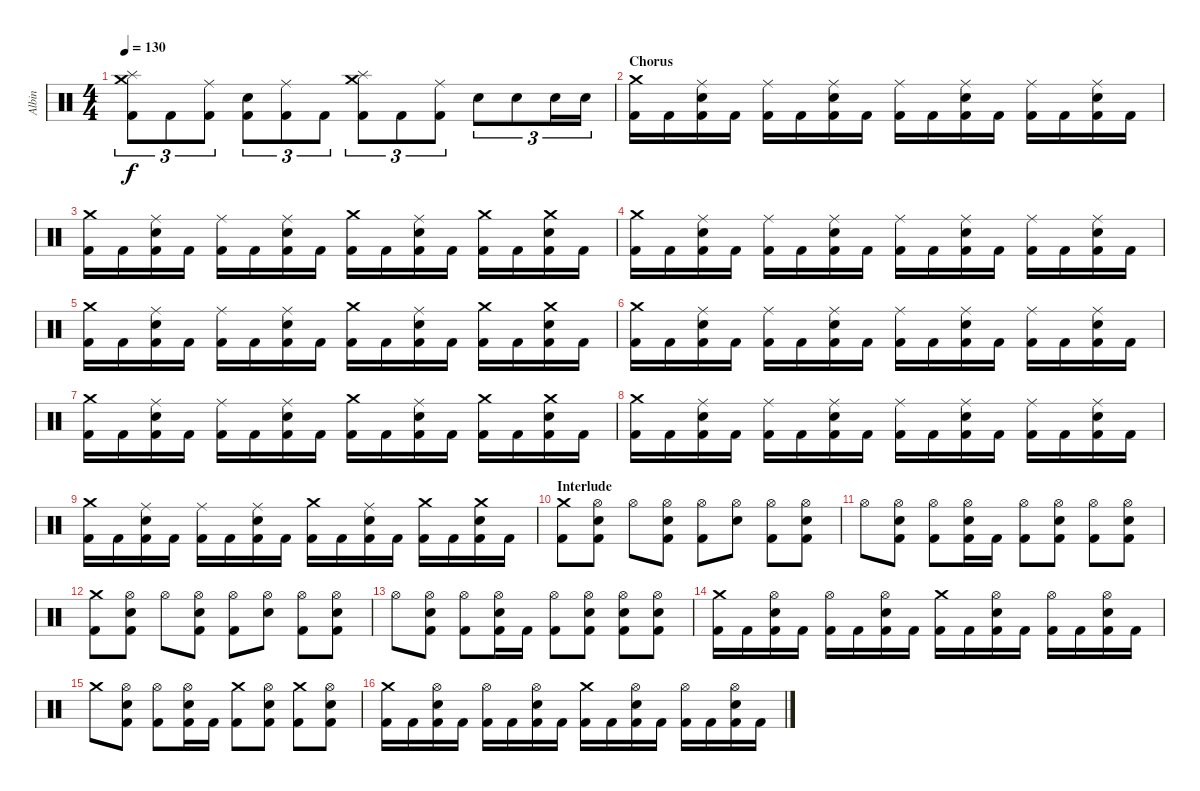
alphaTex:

\track ("Albin" "Albin") {instrument percussion}
\staff {score}
\articulation defaults
\ts (4 4)
\tempo 130
\clef neutral
\ks c
("Crash medium (hit)" "Splash (hit)" "Kick (hit) 2").8{tu (3 2) dy f} "Kick (hit) 2".8{tu (3 2)} ("Ride (middle)" "Kick (hit) 2").8{tu (3 2)} ("Electric Snare (hit)" "Kick (hit) 2").8{tu (3 2)} ("Ride (middle)" "Kick (hit) 2").8{tu (3 2)} "Kick (hit) 2".8{tu (3 2)} ("Crash medium (hit)" "Splash (hit)" "Kick (hit) 2").8{tu (3 2)} "Kick (hit) 2".8{tu (3 2)} ("Ride (middle)" "Kick (hit) 2").8{tu (3 2)} "Electric Snare (hit)".8{tu (3 2)} "Electric Snare (hit)".8{tu (3 2)} "Electric Snare (hit)".16{tu (3 2)} "Electric Snare (hit)".16{tu (3 2)} |
\section ("" "Chorus")
("Crash medium (hit)" "Kick (hit) 2").16 "Kick (hit) 2".16 ("Ride (middle)" "Electric Snare (hit)" "Kick (hit) 2").16 "Kick (hit) 2".16 ("Ride (middle)" "Kick (hit) 2").16 "Kick (hit) 2".16 ("Ride (middle)" "Electric Snare (hit)" "Kick (hit) 2").16 "Kick (hit) 2".16 ("Ride (middle)" "Kick (hit) 2").16 "Kick (hit) 2".16 ("Ride (middle)" "Electric Snare (hit)" "Kick (hit) 2").16 "Kick (hit) 2".16 ("Ride (middle)" "Kick (hit) 2").16 "Kick (hit) 2".16 ("Ride (middle)" "Electric Snare (hit)" "Kick (hit) 2").16 "Kick (hit) 2".16 |
("Crash medium (hit)" "Kick (hit) 2").16 "Kick (hit) 2".16 ("Ride (middle)" "Electric Snare (hit)" "Kick (hit) 2").16 "Kick (hit) 2".16 ("Ride (middle)" "Kick (hit) 2").16 "Kick (hit) 2".16 ("Ride (middle)" "Electric Snare (hit)" "Kick (hit) 2").16 "Kick (hit) 2".16 ("Crash medium (hit)" "Kick (hit) 2").16 "Kick (hit) 2".16 ("Ride (middle)" "Electric Snare (hit)" "Kick (hit) 2").16 "Kick (hit) 2".16 ("Crash medium (hit)" "Kick (hit) 2").16 "Kick (hit) 2".16 ("Crash medium (hit)" "Electric Snare (hit)" "Kick (hit) 2").16 "Kick (hit) 2".16 |
("Crash medium (hit)" "Kick (hit) 2").16 "Kick (hit) 2".16 ("Ride (middle)" "Electric Snare (hit)" "Kick (hit) 2").16 "Kick (hit) 2".16 ("Ride (middle)" "Kick (hit) 2").16 "Kick (hit) 2".16 ("Ride (middle)" "Electric Snare (hit)" "Kick (hit) 2").16 "Kick (hit) 2".16 ("Ride (middle)" "Kick (hit) 2").16 "Kick (hit) 2".16 ("Ride (middle)" "Electric Snare (hit)" "Kick (hit) 2").16 "Kick (hit) 2".16 ("Ride (middle)" "Kick (hit) 2").16 "Kick (hit) 2".16 ("Ride (middle)" "Electric Snare (hit)" "Kick (hit) 2").16 "Kick (hit) 2".16 |
("Crash medium (hit)" "Kick (hit) 2").16 "Kick (hit) 2".16 ("Ride (middle)" "Electric Snare (hit)" "Kick (hit) 2").16 "Kick (hit) 2".16 ("Ride (middle)" "Kick (hit) 2").16 "Kick (hit) 2".16 ("Ride (middle)" "Electric Snare (hit)" "Kick (hit) 2").16 "Kick (hit) 2".16 ("Crash medium (hit)" "Kick (hit) 2").16 "Kick (hit) 2".16 ("Ride (middle)" "Electric Snare (hit)" "Kick (hit) 2").16 "Kick (hit) 2".16 ("Crash medium (hit)" "Kick (hit) 2").16 "Kick (hit) 2".16 ("Crash medium (hit)" "Electric Snare (hit)" "Kick (hit) 2").16 "Kick (hit) 2".16 |
("Crash medium (hit)" "Kick (hit) 2").16 "Kick (hit) 2".16 ("Ride (middle)" "Electric Snare (hit)" "Kick (hit) 2").16 "Kick (hit) 2".16 ("Ride (middle)" "Kick (hit) 2").16 "Kick (hit) 2".16 ("Ride (middle)" "Electric Snare (hit)" "Kick (hit) 2").16 "Kick (hit) 2".16 ("Ride (middle)" "Kick (hit) 2").16 "Kick (hit) 2".16 ("Ride (middle)" "Electric Snare (hit)" "Kick (hit) 2").16 "Kick (hit) 2".16 ("Ride (middle)" "Kick (hit) 2").16 "Kick (hit) 2".16 ("Ride (middle)" "Electric Snare (hit)" "Kick (hit) 2").16 "Kick (hit) 2".16 |
("Crash medium (hit)" "Kick (hit) 2").16 "Kick (hit) 2".16 ("Ride (middle)" "Electric Snare (hit)" "Kick (hit) 2").16 "Kick (hit) 2".16 ("Ride (middle)" "Kick (hit) 2").16 "Kick (hit) 2".16 ("Ride (middle)" "Electric Snare (hit)" "Kick (hit) 2").16 "Kick (hit) 2".16 ("Crash medium (hit)" "Kick (hit) 2").16 "Kick (hit) 2".16 ("Ride (middle)" "Electric Snare (hit)" "Kick (hit) 2").16 "Kick (hit) 2".16 ("Crash medium (hit)" "Kick (hit) 2").16 "Kick (hit) 2".16 ("Crash medium (hit)" "Electric Snare (hit)" "Kick (hit) 2").16 "Kick (hit) 2".16 |
("Crash medium (hit)" "Kick (hit) 2").16 "Kick (hit) 2".16 ("Ride (middle)" "Electric Snare (hit)" "Kick (hit) 2").16 "Kick (hit) 2".16 ("Ride (middle)" "Kick (hit) 2").16 "Kick (hit) 2".16 ("Ride (middle)" "Electric Snare (hit)" "Kick (hit) 2").16 "Kick (hit) 2".16 ("Ride (middle)" "Kick (hit) 2").16 "Kick (hit) 2".16 ("Ride (middle)" "Electric Snare (hit)" "Kick (hit) 2").16 "Kick (hit) 2".16 ("Ride (middle)" "Kick (hit) 2").16 "Kick (hit) 2".16 ("Ride (middle)" "Electric Snare (hit)" "Kick (hit) 2").16 "Kick (hit) 2".16 |
("Crash medium (hit)" "Kick (hit) 2").16 "Kick (hit) 2".16 ("Ride (middle)" "Electric Snare (hit)" "Kick (hit) 2").16 "Kick (hit) 2".16 ("Ride (middle)" "Kick (hit) 2").16 "Kick (hit) 2".16 ("Ride (middle)" "Electric Snare (hit)" "Kick (hit) 2").16 "Kick (hit) 2".16 ("Crash medium (hit)" "Kick (hit) 2").16 "Kick (hit) 2".16 ("Ride (middle)" "Electric Snare (hit)" "Kick (hit) 2").16 "Kick (hit) 2".16 ("Crash medium (hit)" "Kick (hit) 2").16 "Kick (hit) 2".16 ("Crash medium (hit)" "Electric Snare (hit)" "Kick (hit) 2").16 "Kick (hit) 2".16 |
\section ("" "Interlude")
("Crash medium (hit)" "Kick (hit) 2").8 ("Hi-Hat (open)" "Electric Snare (hit)" "Kick (hit) 2").8 "Hi-Hat (open)".8 ("Hi-Hat (open)" "Electric Snare (hit)" "Kick (hit) 2").8 ("Hi-Hat (open)" "Kick (hit) 2").8 ("Hi-Hat (open)" "Electric Snare (hit)").8 ("Hi-Hat (open)" "Kick (hit) 2").8 ("Hi-Hat (open)" "Electric Snare (hit)" "Kick (hit) 2").8 |
"Hi-Hat (open)".8 ("Hi-Hat (open)" "Electric Snare (hit)" "Kick (hit) 2").8 ("Hi-Hat (open)" "Kick (hit) 2").8 ("Hi-Hat (open)" "Electric Snare (hit)" "Kick (hit) 2").16 "Kick (hit) 2".16 ("Hi-Hat (open)" "Kick (hit) 2").8 ("Hi-Hat (open)" "Electric Snare (hit)" "Kick (hit) 2").8 ("Hi-Hat (open)" "Kick (hit) 2").8 ("Hi-Hat (open)" "Electric Snare (hit)" "Kick (hit) 2").8 |
("Crash medium (hit)" "Kick (hit) 2").8 ("Hi-Hat (open)" "Electric Snare (hit)" "Kick (hit) 2").8 "Hi-Hat (open)".8 ("Hi-Hat (open)" "Electric Snare (hit)" "Kick (hit) 2").8 ("Hi-Hat (open)" "Kick (hit) 2").8 ("Hi-Hat (open)" "Electric Snare (hit)").8 ("Hi-Hat (open)" "Kick (hit) 2").8 ("Hi-Hat (open)" "Electric Snare (hit)" "Kick (hit) 2").8 |
"Hi-Hat (open)".8 ("Hi-Hat (open)" "Electric Snare (hit)" "Kick (hit) 2").8 ("Hi-Hat (open)" "Kick (hit) 2").8 ("Hi-Hat (open)" "Electric Snare (hit)" "Kick (hit) 2").16 "Kick (hit) 2".16 ("Hi-Hat (open)" "Kick (hit) 2").8 ("Hi-Hat (open)" "Electric Snare (hit)" "Kick (hit) 2").8 ("Hi-Hat (open)" "Electric Snare (hit)" "Kick (hit) 2").8 ("Hi-Hat (open)" "Electric Snare (hit)" "Kick (hit) 2").8 |
("Crash medium (hit)" "Kick (hit) 2").16 "Kick (hit) 2".16 ("Hi-Hat (open)" "Electric Snare (hit)" "Kick (hit) 2").16 "Kick (hit) 2".16 ("Hi-Hat (open)" "Kick (hit) 2").16 "Kick (hit) 2".16 ("Hi-Hat (open)" "Electric Snare (hit)" "Kick (hit) 2").16 "Kick (hit) 2".16 ("Crash medium (hit)" "Kick (hit) 2").16 "Kick (hit) 2".16 ("Hi-Hat (open)" "Electric Snare (hit)" "Kick (hit) 2").16 "Kick (hit) 2".16 ("Hi-Hat (open)" "Kick (hit) 2").16 "Kick (hit) 2".16 ("Hi-Hat (open)" "Electric Snare (hit)" "Kick (hit) 2").16 "Kick (hit) 2".16 |
"Crash medium (hit)".8 ("Hi-Hat (open)" "Electric Snare (hit)" "Kick (hit) 2").8 ("Hi-Hat (open)" "Kick (hit) 2").8 ("Hi-Hat (open)" "Electric Snare (hit)" "Kick (hit) 2").16 "Kick (hit) 2".16 ("Crash medium (hit)" "Kick (hit) 2").8 ("Hi-Hat (open)" "Electric Snare (hit)" "Kick (hit) 2").8 ("Crash medium (hit)" "Kick (hit) 2").8 ("Hi-Hat (open)" "Electric Snare (hit)" "Kick (hit) 2").8 |
("Crash medium (hit)" "Kick (hit) 2").16 "Kick (hit) 2".16 ("Hi-Hat (open)" "Electric Snare (hit)" "Kick (hit) 2").16 "Kick (hit) 2".16 ("Hi-Hat (open)" "Kick (hit) 2").16 "Kick (hit) 2".16 ("Hi-Hat (open)" "Electric Snare (hit)" "Kick (hit) 2").16 "Kick (hit) 2".16 ("Crash medium (hit)" "Kick (hit) 2").16 "Kick (hit) 2".16 ("Hi-Hat (open)" "Electric Snare (hit)" "Kick (hit) 2").16 "Kick (hit) 2".16 ("Hi-Hat (open)" "Kick (hit) 2").16 "Kick (hit) 2".16 ("Hi-Hat (open)" "Electric Snare (hit)" "Kick (hit) 2").16 "Kick (hit) 2".16
